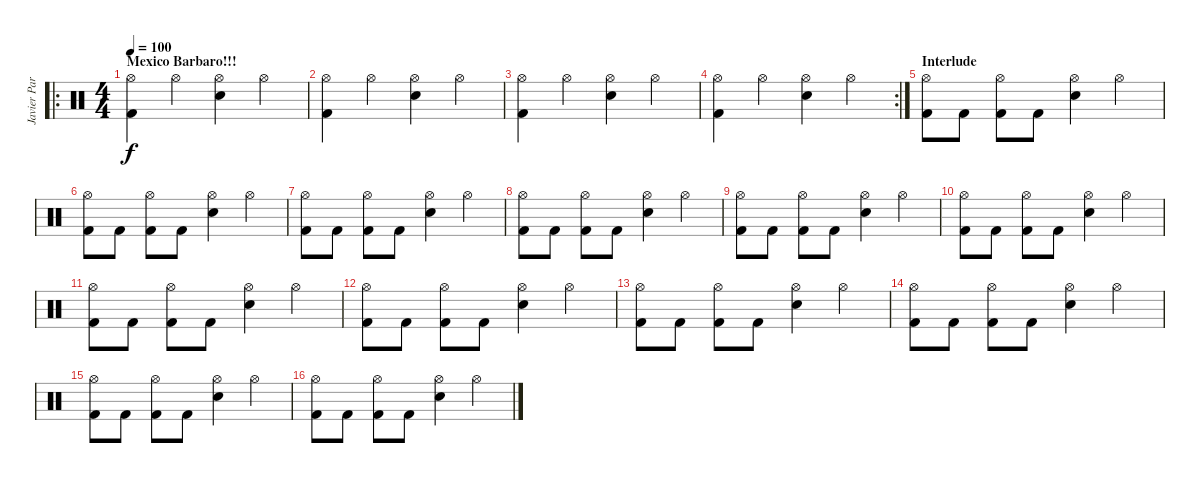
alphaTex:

\track ("Javier Partida" "Javier Par") {instrument percussion}
\staff {score}
\articulation defaults
\ro
\ts (4 4)
\section ("" "Mexico Barbaro!!!")
\tempo 100
\clef neutral
\ks c
("Kick (hit) 2" "Hi-Hat (open)").4{dy f} "Hi-Hat (open)".4 ("Snare (hit) 2" "Hi-Hat (open)").4 "Hi-Hat (open)".4 |
("Kick (hit) 2" "Hi-Hat (open)").4 "Hi-Hat (open)".4 ("Snare (hit) 2" "Hi-Hat (open)").4 "Hi-Hat (open)".4 |
("Kick (hit) 2" "Hi-Hat (open)").4 "Hi-Hat (open)".4 ("Snare (hit) 2" "Hi-Hat (open)").4 "Hi-Hat (open)".4 |
\rc 2
("Kick (hit) 2" "Hi-Hat (open)").4 "Hi-Hat (open)".4 ("Snare (hit) 2" "Hi-Hat (open)").4 "Hi-Hat (open)".4 |
\section ("" "Interlude")
("Kick (hit) 2" "Hi-Hat (open)").8 "Kick (hit) 2".8 ("Kick (hit) 2" "Hi-Hat (open)").8 "Kick (hit) 2".8 ("Snare (hit) 2" "Hi-Hat (open)").4 "Hi-Hat (open)".4 |
("Kick (hit) 2" "Hi-Hat (open)").8 "Kick (hit) 2".8 ("Kick (hit) 2" "Hi-Hat (open)").8 "Kick (hit) 2".8 ("Snare (hit) 2" "Hi-Hat (open)").4 "Hi-Hat (open)".4 |
("Kick (hit) 2" "Hi-Hat (open)").8 "Kick (hit) 2".8 ("Kick (hit) 2" "Hi-Hat (open)").8 "Kick (hit) 2".8 ("Snare (hit) 2" "Hi-Hat (open)").4 "Hi-Hat (open)".4 |
("Kick (hit) 2" "Hi-Hat (open)").8 "Kick (hit) 2".8 ("Kick (hit) 2" "Hi-Hat (open)").8 "Kick (hit) 2".8 ("Snare (hit) 2" "Hi-Hat (open)").4 "Hi-Hat (open)".4 |
("Kick (hit) 2" "Hi-Hat (open)").8 "Kick (hit) 2".8 ("Kick (hit) 2" "Hi-Hat (open)").8 "Kick (hit) 2".8 ("Snare (hit) 2" "Hi-Hat (open)").4 "Hi-Hat (open)".4 |
("Kick (hit) 2" "Hi-Hat (open)").8 "Kick (hit) 2".8 ("Kick (hit) 2" "Hi-Hat (open)").8 "Kick (hit) 2".8 ("Snare (hit) 2" "Hi-Hat (open)").4 "Hi-Hat (open)".4 |
("Kick (hit) 2" "Hi-Hat (open)").8 "Kick (hit) 2".8 ("Kick (hit) 2" "Hi-Hat (open)").8 "Kick (hit) 2".8 ("Snare (hit) 2" "Hi-Hat (open)").4 "Hi-Hat (open)".4 |
("Kick (hit) 2" "Hi-Hat (open)").8 "Kick (hit) 2".8 ("Kick (hit) 2" "Hi-Hat (open)").8 "Kick (hit) 2".8 ("Snare (hit) 2" "Hi-Hat (open)").4 "Hi-Hat (open)".4 |
("Kick (hit) 2" "Hi-Hat (open)").8 "Kick (hit) 2".8 ("Kick (hit) 2" "Hi-Hat (open)").8 "Kick (hit) 2".8 ("Snare (hit) 2" "Hi-Hat (open)").4 "Hi-Hat (open)".4 |
("Kick (hit) 2" "Hi-Hat (open)").8 "Kick (hit) 2".8 ("Kick (hit) 2" "Hi-Hat (open)").8 "Kick (hit) 2".8 ("Snare (hit) 2" "Hi-Hat (open)").4 "Hi-Hat (open)".4 |
("Kick (hit) 2" "Hi-Hat (open)").8 "Kick (hit) 2".8 ("Kick (hit) 2" "Hi-Hat (open)").8 "Kick (hit) 2".8 ("Snare (hit) 2" "Hi-Hat (open)").4 "Hi-Hat (open)".4 |
("Kick (hit) 2" "Hi-Hat (open)").8 "Kick (hit) 2".8 ("Kick (hit) 2" "Hi-Hat (open)").8 "Kick (hit) 2".8 ("Snare (hit) 2" "Hi-Hat (open)").4 "Hi-Hat (open)".4
